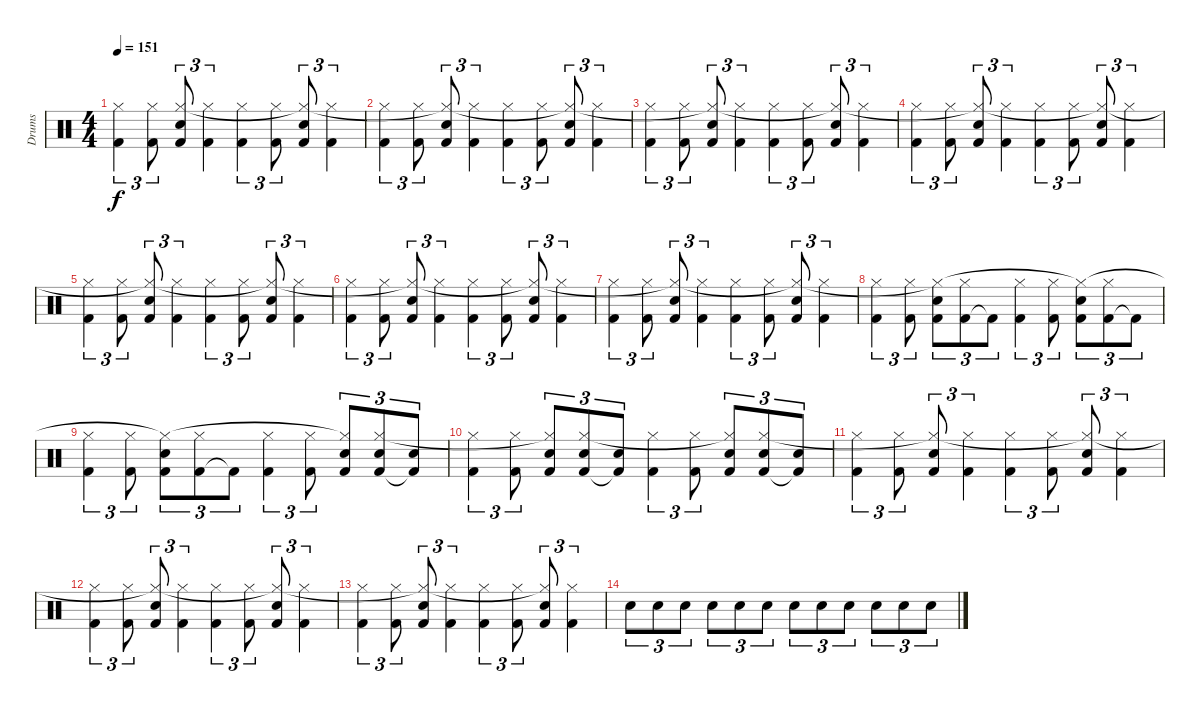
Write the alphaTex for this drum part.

\track ("Drums" "Drums") {instrument percussion}
\staff {score}
\articulation defaults
\ts (4 4)
\tempo 151
\clef neutral
\ks c
("Kick (hit) 2" "Hi-Hat (closed)").4{tu (3 2) dy f} ("Kick (hit) 2" "Hi-Hat (closed)").8{tu (3 2)} ("Electric Snare (hit)" "Kick (hit) 2" "Hi-Hat (closed)"{t}).8{tu (3 2)} ("Kick (hit) 2" "Hi-Hat (closed)").4{tu (3 2)} ("Kick (hit) 2" "Hi-Hat (closed)").4{tu (3 2)} ("Kick (hit) 2" "Hi-Hat (closed)").8{tu (3 2)} ("Electric Snare (hit)" "Kick (hit) 2" "Hi-Hat (closed)"{t}).8{tu (3 2)} ("Kick (hit) 2" "Hi-Hat (closed)").4{tu (3 2)} |
("Kick (hit) 2" "Hi-Hat (closed)").4{tu (3 2)} ("Kick (hit) 2" "Hi-Hat (closed)").8{tu (3 2)} ("Electric Snare (hit)" "Kick (hit) 2" "Hi-Hat (closed)"{t}).8{tu (3 2)} ("Kick (hit) 2" "Hi-Hat (closed)").4{tu (3 2)} ("Kick (hit) 2" "Hi-Hat (closed)").4{tu (3 2)} ("Kick (hit) 2" "Hi-Hat (closed)").8{tu (3 2)} ("Electric Snare (hit)" "Kick (hit) 2" "Hi-Hat (closed)"{t}).8{tu (3 2)} ("Kick (hit) 2" "Hi-Hat (closed)").4{tu (3 2)} |
("Kick (hit) 2" "Hi-Hat (closed)").4{tu (3 2)} ("Kick (hit) 2" "Hi-Hat (closed)").8{tu (3 2)} ("Electric Snare (hit)" "Kick (hit) 2" "Hi-Hat (closed)"{t}).8{tu (3 2)} ("Kick (hit) 2" "Hi-Hat (closed)").4{tu (3 2)} ("Kick (hit) 2" "Hi-Hat (closed)").4{tu (3 2)} ("Kick (hit) 2" "Hi-Hat (closed)").8{tu (3 2)} ("Electric Snare (hit)" "Kick (hit) 2" "Hi-Hat (closed)"{t}).8{tu (3 2)} ("Kick (hit) 2" "Hi-Hat (closed)").4{tu (3 2)} |
("Kick (hit) 2" "Hi-Hat (closed)").4{tu (3 2)} ("Kick (hit) 2" "Hi-Hat (closed)").8{tu (3 2)} ("Electric Snare (hit)" "Kick (hit) 2" "Hi-Hat (closed)"{t}).8{tu (3 2)} ("Kick (hit) 2" "Hi-Hat (closed)").4{tu (3 2)} ("Kick (hit) 2" "Hi-Hat (closed)").4{tu (3 2)} ("Kick (hit) 2" "Hi-Hat (closed)").8{tu (3 2)} ("Electric Snare (hit)" "Kick (hit) 2" "Hi-Hat (closed)"{t}).8{tu (3 2)} ("Kick (hit) 2" "Hi-Hat (closed)").4{tu (3 2)} |
("Kick (hit) 2" "Hi-Hat (closed)").4{tu (3 2)} ("Kick (hit) 2" "Hi-Hat (closed)").8{tu (3 2)} ("Electric Snare (hit)" "Kick (hit) 2" "Hi-Hat (closed)"{t}).8{tu (3 2)} ("Kick (hit) 2" "Hi-Hat (closed)").4{tu (3 2)} ("Kick (hit) 2" "Hi-Hat (closed)").4{tu (3 2)} ("Kick (hit) 2" "Hi-Hat (closed)").8{tu (3 2)} ("Electric Snare (hit)" "Kick (hit) 2" "Hi-Hat (closed)"{t}).8{tu (3 2)} ("Kick (hit) 2" "Hi-Hat (closed)").4{tu (3 2)} |
("Kick (hit) 2" "Hi-Hat (closed)").4{tu (3 2)} ("Kick (hit) 2" "Hi-Hat (closed)").8{tu (3 2)} ("Electric Snare (hit)" "Kick (hit) 2" "Hi-Hat (closed)"{t}).8{tu (3 2)} ("Kick (hit) 2" "Hi-Hat (closed)").4{tu (3 2)} ("Kick (hit) 2" "Hi-Hat (closed)").4{tu (3 2)} ("Kick (hit) 2" "Hi-Hat (closed)").8{tu (3 2)} ("Electric Snare (hit)" "Kick (hit) 2" "Hi-Hat (closed)"{t}).8{tu (3 2)} ("Kick (hit) 2" "Hi-Hat (closed)").4{tu (3 2)} |
("Kick (hit) 2" "Hi-Hat (closed)").4{tu (3 2)} ("Kick (hit) 2" "Hi-Hat (closed)").8{tu (3 2)} ("Electric Snare (hit)" "Kick (hit) 2" "Hi-Hat (closed)"{t}).8{tu (3 2)} ("Kick (hit) 2" "Hi-Hat (closed)").4{tu (3 2)} ("Kick (hit) 2" "Hi-Hat (closed)").4{tu (3 2)} ("Kick (hit) 2" "Hi-Hat (closed)").8{tu (3 2)} ("Electric Snare (hit)" "Kick (hit) 2" "Hi-Hat (closed)"{t}).8{tu (3 2)} ("Kick (hit) 2" "Hi-Hat (closed)").4{tu (3 2)} |
("Kick (hit) 2" "Hi-Hat (closed)").4{tu (3 2)} ("Kick (hit) 2" "Hi-Hat (closed)").8{tu (3 2)} ("Electric Snare (hit)" "Kick (hit) 2" "Hi-Hat (closed)"{t}).8{tu (3 2)} ("Kick (hit) 2" "Hi-Hat (closed)").8{tu (3 2)} "Kick (hit) 2"{t}.8{tu (3 2)} ("Kick (hit) 2" "Hi-Hat (closed)").4{tu (3 2)} ("Kick (hit) 2" "Hi-Hat (closed)").8{tu (3 2)} ("Electric Snare (hit)" "Kick (hit) 2" "Hi-Hat (closed)"{t}).8{tu (3 2)} ("Kick (hit) 2" "Hi-Hat (closed)").8{tu (3 2)} "Kick (hit) 2"{t}.8{tu (3 2)} |
("Kick (hit) 2" "Hi-Hat (closed)").4{tu (3 2)} ("Kick (hit) 2" "Hi-Hat (closed)").8{tu (3 2)} ("Electric Snare (hit)" "Kick (hit) 2" "Hi-Hat (closed)"{t}).8{tu (3 2)} ("Kick (hit) 2" "Hi-Hat (closed)").8{tu (3 2)} "Kick (hit) 2"{t}.8{tu (3 2)} ("Kick (hit) 2" "Hi-Hat (closed)").4{tu (3 2)} ("Kick (hit) 2" "Hi-Hat (closed)").8{tu (3 2)} ("Electric Snare (hit)" "Kick (hit) 2" "Hi-Hat (closed)"{t}).8{tu (3 2)} ("Electric Snare (hit)" "Kick (hit) 2" "Hi-Hat (closed)").8{tu (3 2)} ("Electric Snare (hit)" "Kick (hit) 2"{t}).8{tu (3 2)} |
("Kick (hit) 2" "Hi-Hat (closed)").4{tu (3 2)} ("Kick (hit) 2" "Hi-Hat (closed)").8{tu (3 2)} ("Electric Snare (hit)" "Kick (hit) 2" "Hi-Hat (closed)"{t}).8{tu (3 2)} ("Electric Snare (hit)" "Kick (hit) 2" "Hi-Hat (closed)").8{tu (3 2)} ("Electric Snare (hit)" "Kick (hit) 2"{t}).8{tu (3 2)} ("Kick (hit) 2" "Hi-Hat (closed)").4{tu (3 2)} ("Kick (hit) 2" "Hi-Hat (closed)").8{tu (3 2)} ("Electric Snare (hit)" "Kick (hit) 2" "Hi-Hat (closed)"{t}).8{tu (3 2)} ("Electric Snare (hit)" "Kick (hit) 2" "Hi-Hat (closed)").8{tu (3 2)} ("Electric Snare (hit)" "Kick (hit) 2"{t}).8{tu (3 2)} |
("Kick (hit) 2" "Hi-Hat (closed)").4{tu (3 2)} ("Kick (hit) 2" "Hi-Hat (closed)").8{tu (3 2)} ("Electric Snare (hit)" "Kick (hit) 2" "Hi-Hat (closed)"{t}).8{tu (3 2)} ("Kick (hit) 2" "Hi-Hat (closed)").4{tu (3 2)} ("Kick (hit) 2" "Hi-Hat (closed)").4{tu (3 2)} ("Kick (hit) 2" "Hi-Hat (closed)").8{tu (3 2)} ("Electric Snare (hit)" "Kick (hit) 2" "Hi-Hat (closed)"{t}).8{tu (3 2)} ("Kick (hit) 2" "Hi-Hat (closed)").4{tu (3 2)} |
("Kick (hit) 2" "Hi-Hat (closed)").4{tu (3 2)} ("Kick (hit) 2" "Hi-Hat (closed)").8{tu (3 2)} ("Electric Snare (hit)" "Kick (hit) 2" "Hi-Hat (closed)"{t}).8{tu (3 2)} ("Kick (hit) 2" "Hi-Hat (closed)").4{tu (3 2)} ("Kick (hit) 2" "Hi-Hat (closed)").4{tu (3 2)} ("Kick (hit) 2" "Hi-Hat (closed)").8{tu (3 2)} ("Electric Snare (hit)" "Kick (hit) 2" "Hi-Hat (closed)"{t}).8{tu (3 2)} ("Kick (hit) 2" "Hi-Hat (closed)").4{tu (3 2)} |
("Kick (hit) 2" "Hi-Hat (closed)").4{tu (3 2)} ("Kick (hit) 2" "Hi-Hat (closed)").8{tu (3 2)} ("Electric Snare (hit)" "Kick (hit) 2" "Hi-Hat (closed)"{t}).8{tu (3 2)} ("Kick (hit) 2" "Hi-Hat (closed)").4{tu (3 2)} ("Kick (hit) 2" "Hi-Hat (closed)").4{tu (3 2)} ("Kick (hit) 2" "Hi-Hat (closed)").8{tu (3 2)} ("Electric Snare (hit)" "Kick (hit) 2" "Hi-Hat (closed)"{t}).8{tu (3 2)} ("Kick (hit) 2" "Hi-Hat (closed)").4{tu (3 2)} |
"Electric Snare (hit)".8{tu (3 2)} "Electric Snare (hit)".8{tu (3 2)} "Electric Snare (hit)".8{tu (3 2)} "Electric Snare (hit)".8{tu (3 2)} "Electric Snare (hit)".8{tu (3 2)} "Electric Snare (hit)".8{tu (3 2)} "Electric Snare (hit)".8{tu (3 2)} "Electric Snare (hit)".8{tu (3 2)} "Electric Snare (hit)".8{tu (3 2)} "Electric Snare (hit)".8{tu (3 2)} "Electric Snare (hit)".8{tu (3 2)} "Electric Snare (hit)".8{tu (3 2)}
